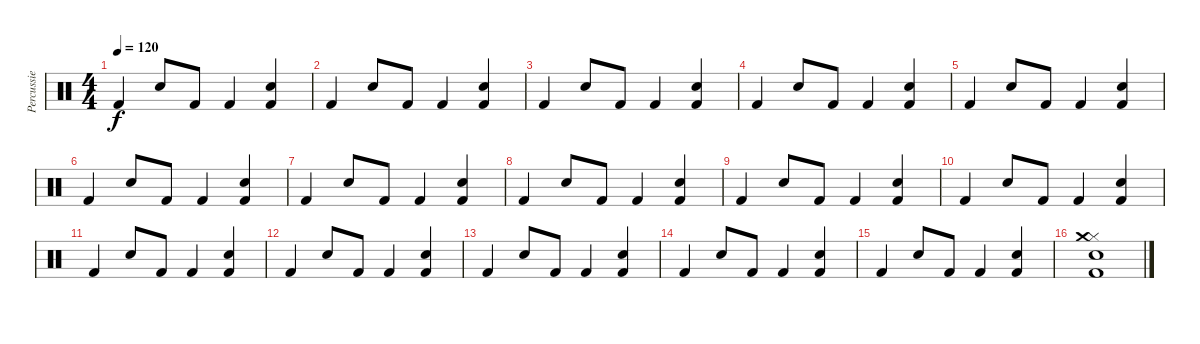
\track ("Percussie" "Percussie") {instrument percussion}
\staff {score}
\articulation defaults
\ts (4 4)
\tempo 120
\clef neutral
\ks c "Kick (hit) 2".4{dy f} "Snare (hit) 2".8 "Kick (hit) 2".8 "Kick (hit) 2".4
("Snare (hit) 2" "Kick (hit) 2").4 |
"Kick (hit) 2".4 "Snare (hit) 2".8 "Kick (hit) 2".8 "Kick (hit) 2".4 ("Snare (hit) 2" "Kick (hit) 2").4 |
"Kick (hit) 2".4 "Snare (hit) 2".8 "Kick (hit) 2".8 "Kick (hit) 2".4 ("Snare (hit) 2" "Kick (hit) 2").4 |
"Kick (hit) 2".4 "Snare (hit) 2".8 "Kick (hit) 2".8 "Kick (hit) 2".4 ("Snare (hit) 2" "Kick (hit) 2").4 |
"Kick (hit) 2".4 "Snare (hit) 2".8 "Kick (hit) 2".8 "Kick (hit) 2".4 ("Snare (hit) 2" "Kick (hit) 2").4 |
"Kick (hit) 2".4 "Snare (hit) 2".8 "Kick (hit) 2".8 "Kick (hit) 2".4 ("Snare (hit) 2" "Kick (hit) 2").4 |
"Kick (hit) 2".4 "Snare (hit) 2".8 "Kick (hit) 2".8 "Kick (hit) 2".4 ("Snare (hit) 2" "Kick (hit) 2").4 |
"Kick (hit) 2".4 "Snare (hit) 2".8 "Kick (hit) 2".8 "Kick (hit) 2".4 ("Snare (hit) 2" "Kick (hit) 2").4 |
"Kick (hit) 2".4 "Snare (hit) 2".8 "Kick (hit) 2".8 "Kick (hit) 2".4 ("Snare (hit) 2" "Kick (hit) 2").4 |
"Kick (hit) 2".4 "Snare (hit) 2".8 "Kick (hit) 2".8 "Kick (hit) 2".4 ("Snare (hit) 2" "Kick (hit) 2").4 |
"Kick (hit) 2".4 "Snare (hit) 2".8 "Kick (hit) 2".8 "Kick (hit) 2".4 ("Snare (hit) 2" "Kick (hit) 2").4 |
"Kick (hit) 2".4 "Snare (hit) 2".8 "Kick (hit) 2".8 "Kick (hit) 2".4 ("Snare (hit) 2" "Kick (hit) 2").4 |
"Kick (hit) 2".4 "Snare (hit) 2".8 "Kick (hit) 2".8 "Kick (hit) 2".4 ("Snare (hit) 2" "Kick (hit) 2").4 |
"Kick (hit) 2".4 "Snare (hit) 2".8 "Kick (hit) 2".8 "Kick (hit) 2".4 ("Snare (hit) 2" "Kick (hit) 2").4 |
"Kick (hit) 2".4 "Snare (hit) 2".8 "Kick (hit) 2".8 "Kick (hit) 2".4 ("Snare (hit) 2" "Kick (hit) 2").4 |
("Snare (hit) 2" "Kick (hit) 2" "Hi-Hat (closed)" "Crash medium (hit)").1
